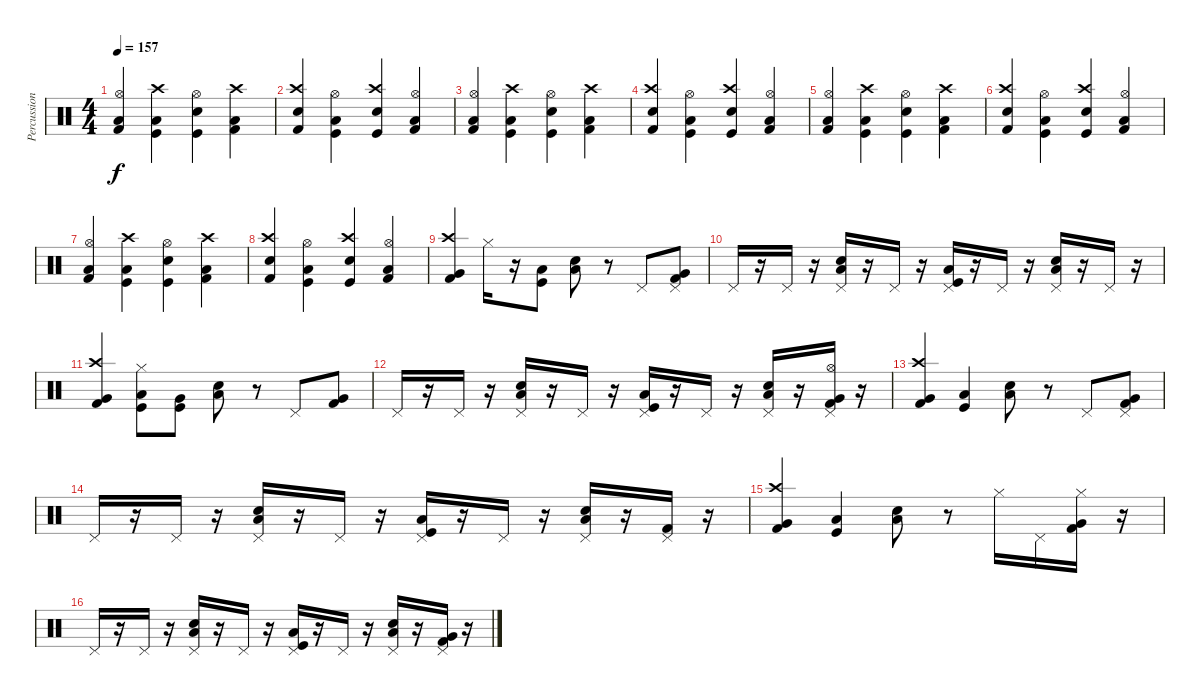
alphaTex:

\track ("Percussions" "Percussion") {instrument percussion}
\staff {score}
\articulation defaults
\ts (4 4)
\tempo 157
\clef neutral
\ks c
("Kick (hit) 2" "Hi-Hat (open)" "Low Tom (hit)").4{dy f} ("Kick (hit)" "Crash high (hit)" "Low Tom (hit)").4 ("Kick (hit)" "Hi-Hat (open)" "Electric Snare (hit)").4 ("Kick (hit) 2" "Crash high (hit)" "Low Tom (hit)").4 |
("Kick (hit) 2" "Crash high (hit)" "Electric Snare (hit)").4 ("Kick (hit)" "Hi-Hat (open)" "Low Tom (hit)").4 ("Kick (hit)" "Crash high (hit)" "Electric Snare (hit)").4 ("Kick (hit) 2" "Hi-Hat (open)" "Low Tom (hit)").4 |
("Kick (hit) 2" "Hi-Hat (open)" "Low Tom (hit)").4 ("Kick (hit)" "Crash high (hit)" "Low Tom (hit)").4 ("Kick (hit)" "Hi-Hat (open)" "Electric Snare (hit)").4 ("Kick (hit) 2" "Crash high (hit)" "Low Tom (hit)").4 |
("Kick (hit) 2" "Crash high (hit)" "Electric Snare (hit)").4 ("Kick (hit)" "Hi-Hat (open)" "Low Tom (hit)").4 ("Kick (hit)" "Crash high (hit)" "Electric Snare (hit)").4 ("Kick (hit) 2" "Hi-Hat (open)" "Low Tom (hit)").4 |
("Kick (hit) 2" "Hi-Hat (open)" "Low Tom (hit)").4 ("Kick (hit)" "Crash high (hit)" "Low Tom (hit)").4 ("Kick (hit)" "Hi-Hat (open)" "Electric Snare (hit)").4 ("Kick (hit) 2" "Crash high (hit)" "Low Tom (hit)").4 |
("Kick (hit) 2" "Crash high (hit)" "Electric Snare (hit)").4 ("Kick (hit)" "Hi-Hat (open)" "Low Tom (hit)").4 ("Kick (hit)" "Crash high (hit)" "Electric Snare (hit)").4 ("Kick (hit) 2" "Hi-Hat (open)" "Low Tom (hit)").4 |
("Kick (hit) 2" "Hi-Hat (open)" "Low Tom (hit)").4 ("Kick (hit)" "Crash high (hit)" "Low Tom (hit)").4 ("Kick (hit)" "Hi-Hat (open)" "Electric Snare (hit)").4 ("Kick (hit) 2" "Crash high (hit)" "Low Tom (hit)").4 |
("Kick (hit) 2" "Crash high (hit)" "Electric Snare (hit)").4 ("Kick (hit)" "Hi-Hat (open)" "Low Tom (hit)").4 ("Kick (hit)" "Crash high (hit)" "Electric Snare (hit)").4 ("Kick (hit) 2" "Hi-Hat (open)" "Low Tom (hit)").4 |
("Kick (hit) 2" "Very Low Tom (hit)" "Crash high (hit)").4{volume 14} "Hi-Hat (closed)".16 r.16 ("Kick (hit)" "Low Tom (hit)").8 ("Electric Snare (hit)" "Low Floor Tom (hit)").8 r.8 "Pedal Hi-Hat (hit)".8 ("Pedal Hi-Hat (hit)" "Very Low Tom (hit)" "Kick (hit) 2").8 |
"Pedal Hi-Hat (hit)".16 r.16 "Pedal Hi-Hat (hit)".16 r.16 ("Pedal Hi-Hat (hit)" "Low Floor Tom (hit)" "Electric Snare (hit)").16 r.16 "Pedal Hi-Hat (hit)".16 r.16 ("Pedal Hi-Hat (hit)" "Low Tom (hit)" "Kick (hit)").16 r.16 "Pedal Hi-Hat (hit)".16 r.16 ("Pedal Hi-Hat (hit)" "Low Floor Tom (hit)" "Electric Snare (hit)").16 r.16 "Pedal Hi-Hat (hit)".16 r.16 |
("Kick (hit) 2" "Very Low Tom (hit)" "Crash high (hit)").4 ("Hi-Hat (closed)" "Kick (hit)" "Low Tom (hit)").8 ("Kick (hit)" "Very Low Tom (hit)").8 ("Electric Snare (hit)" "Low Floor Tom (hit)").8 r.8 "Pedal Hi-Hat (hit)".8 ("Very Low Tom (hit)" "Kick (hit) 2").8 |
"Pedal Hi-Hat (hit)".16 r.16 "Pedal Hi-Hat (hit)".16 r.16 ("Pedal Hi-Hat (hit)" "Low Floor Tom (hit)" "Electric Snare (hit)").16 r.16 "Pedal Hi-Hat (hit)".16 r.16 ("Pedal Hi-Hat (hit)" "Low Tom (hit)" "Kick (hit)").16 r.16 "Pedal Hi-Hat (hit)".16 r.16 ("Pedal Hi-Hat (hit)" "Low Floor Tom (hit)" "Electric Snare (hit)").16 r.16 ("Pedal Hi-Hat (hit)" "Very Low Tom (hit)" "Kick (hit) 2" "Hi-Hat (open)").16 r.16 |
("Kick (hit) 2" "Very Low Tom (hit)" "Crash high (hit)").4 ("Kick (hit)" "Low Tom (hit)").4 ("Electric Snare (hit)" "Low Floor Tom (hit)").8 r.8 "Pedal Hi-Hat (hit)".8 ("Pedal Hi-Hat (hit)" "Very Low Tom (hit)" "Kick (hit) 2").8 |
"Pedal Hi-Hat (hit)".16 r.16 "Pedal Hi-Hat (hit)".16 r.16 ("Pedal Hi-Hat (hit)" "Low Floor Tom (hit)" "Electric Snare (hit)").16 r.16 "Pedal Hi-Hat (hit)".16 r.16 ("Pedal Hi-Hat (hit)" "Low Tom (hit)" "Kick (hit)").16 r.16 "Pedal Hi-Hat (hit)".16 r.16 ("Pedal Hi-Hat (hit)" "Low Floor Tom (hit)" "Electric Snare (hit)").16 r.16 ("Pedal Hi-Hat (hit)" "Kick (hit) 2").16 r.16 |
("Kick (hit) 2" "Very Low Tom (hit)" "Crash high (hit)").4 ("Kick (hit)" "Low Tom (hit)").4 ("Electric Snare (hit)" "Low Floor Tom (hit)").8 r.8 "Hi-Hat (closed)".16 "Pedal Hi-Hat (hit)".16 ("Hi-Hat (closed)" "Very Low Tom (hit)" "Kick (hit) 2").16 r.16 |
"Pedal Hi-Hat (hit)".16 r.16 "Pedal Hi-Hat (hit)".16 r.16 ("Pedal Hi-Hat (hit)" "Low Floor Tom (hit)" "Electric Snare (hit)").16 r.16 "Pedal Hi-Hat (hit)".16 r.16 ("Pedal Hi-Hat (hit)" "Low Tom (hit)" "Kick (hit)").16 r.16 "Pedal Hi-Hat (hit)".16 r.16 ("Pedal Hi-Hat (hit)" "Low Floor Tom (hit)" "Electric Snare (hit)").16 r.16 ("Pedal Hi-Hat (hit)" "Very Low Tom (hit)" "Kick (hit) 2").16 r.16
